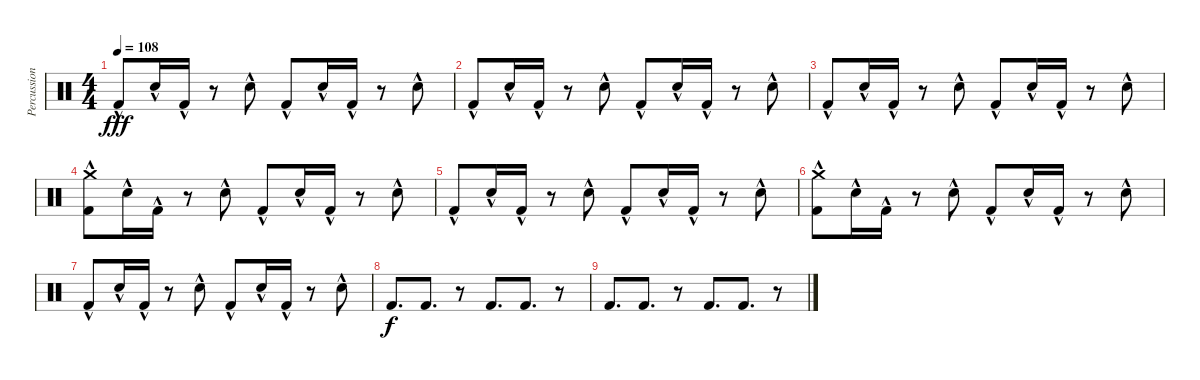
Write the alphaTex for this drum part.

\track ("Percussioni" "Percussion") {instrument percussion}
\staff {score}
\articulation defaults
\ts (4 4)
\tempo 108
\clef neutral
\ks c "Kick (hit) 2"{hac}.8{dy fff} "Snare (hit) 2"{hac}.16 "Kick (hit) 2"{hac}.16
r.8 "Snare (hit) 2"{hac}.8 "Kick (hit) 2"{hac}.8 "Snare (hit) 2"{hac}.16 "Kick (hit) 2"{hac}.16 r.8 "Snare (hit) 2"{hac}.8 |
"Kick (hit) 2"{hac}.8 "Snare (hit) 2"{hac}.16 "Kick (hit) 2"{hac}.16 r.8 "Snare (hit) 2"{hac}.8 "Kick (hit) 2"{hac}.8 "Snare (hit) 2"{hac}.16 "Kick (hit) 2"{hac}.16 r.8 "Snare (hit) 2"{hac}.8 |
"Kick (hit) 2"{hac}.8 "Snare (hit) 2"{hac}.16 "Kick (hit) 2"{hac}.16 r.8 "Snare (hit) 2"{hac}.8 "Kick (hit) 2"{hac}.8 "Snare (hit) 2"{hac}.16 "Kick (hit) 2"{hac}.16 r.8 "Snare (hit) 2"{hac}.8 |
("Crash medium (hit)" "Kick (hit) 2"{hac}).8 "Snare (hit) 2"{hac}.16 "Kick (hit) 2"{hac}.16 r.8 "Snare (hit) 2"{hac}.8 "Kick (hit) 2"{hac}.8 "Snare (hit) 2"{hac}.16 "Kick (hit) 2"{hac}.16 r.8 "Snare (hit) 2"{hac}.8 |
"Kick (hit) 2"{hac}.8 "Snare (hit) 2"{hac}.16 "Kick (hit) 2"{hac}.16 r.8 "Snare (hit) 2"{hac}.8 "Kick (hit) 2"{hac}.8 "Snare (hit) 2"{hac}.16 "Kick (hit) 2"{hac}.16 r.8 "Snare (hit) 2"{hac}.8 |
("Crash medium (hit)" "Kick (hit) 2"{hac}).8 "Snare (hit) 2"{hac}.16 "Kick (hit) 2"{hac}.16 r.8 "Snare (hit) 2"{hac}.8 "Kick (hit) 2"{hac}.8 "Snare (hit) 2"{hac}.16 "Kick (hit) 2"{hac}.16 r.8 "Snare (hit) 2"{hac}.8 |
"Kick (hit) 2"{hac}.8 "Snare (hit) 2"{hac}.16 "Kick (hit) 2"{hac}.16 r.8 "Snare (hit) 2"{hac}.8 "Kick (hit) 2"{hac}.8 "Snare (hit) 2"{hac}.16 "Kick (hit) 2"{hac}.16 r.8 "Snare (hit) 2"{hac}.8 |
"Kick (hit) 2".8{d dy f} "Kick (hit) 2".8{d} r.8 "Kick (hit) 2".8{d} "Kick (hit) 2".8{d} r.8 |
"Kick (hit) 2".8{d} "Kick (hit) 2".8{d} r.8 "Kick (hit) 2".8{d} "Kick (hit) 2".8{d} r.8
